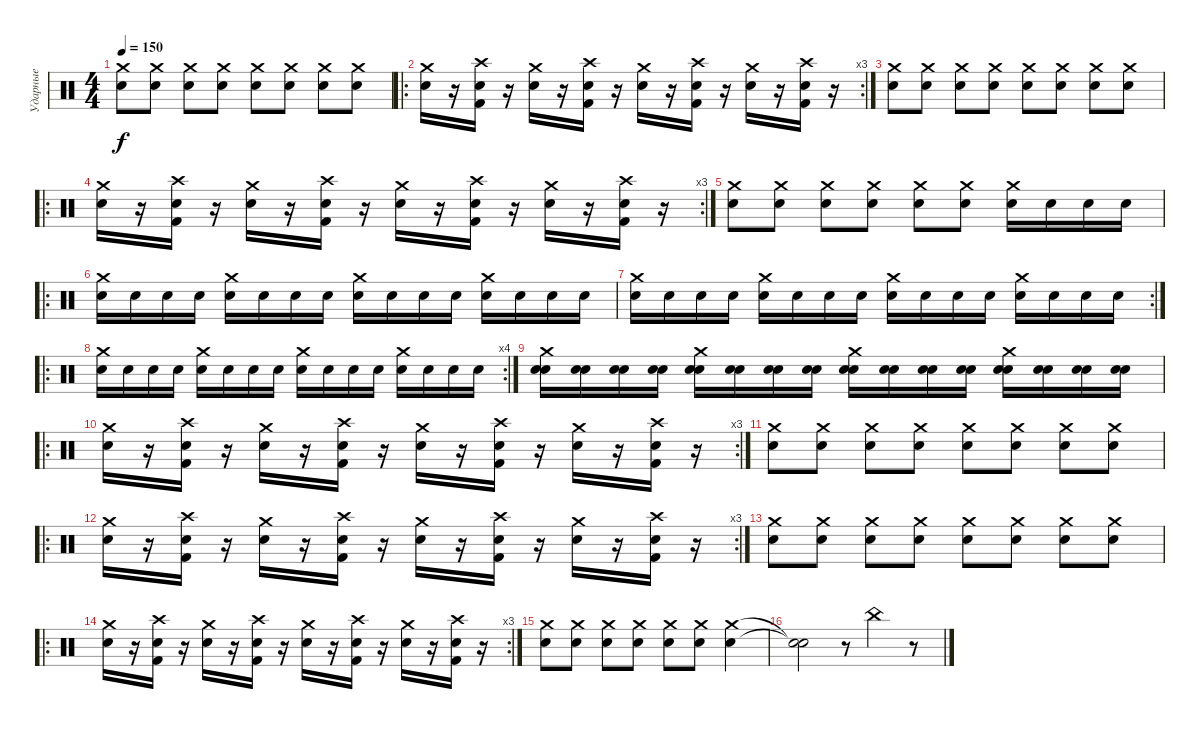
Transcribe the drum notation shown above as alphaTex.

\track ("Ударные" "Ударные") {instrument percussion}
\staff {score}
\articulation defaults
\ts (4 4)
\tempo 150
\clef neutral
\ks c
("Crash medium (hit)" "Snare (hit) 2").8{dy f} ("Crash medium (hit)" "Snare (hit) 2").8 ("Crash medium (hit)" "Snare (hit) 2").8 ("Crash medium (hit)" "Snare (hit) 2").8 ("Crash medium (hit)" "Snare (hit) 2").8 ("Crash medium (hit)" "Snare (hit) 2").8 ("Crash medium (hit)" "Snare (hit) 2").8 ("Crash medium (hit)" "Snare (hit) 2").8 |
\ro
\rc 3
("Crash medium (hit)" "Snare (hit) 2").16 r.16 ("Crash high (hit)" "Electric Snare (hit)" "Kick (hit) 2").16 r.16 ("Crash medium (hit)" "Snare (hit) 2").16 r.16 ("Crash high (hit)" "Electric Snare (hit)" "Kick (hit) 2").16 r.16 ("Crash medium (hit)" "Snare (hit) 2").16 r.16 ("Crash high (hit)" "Electric Snare (hit)" "Kick (hit) 2").16 r.16 ("Crash medium (hit)" "Snare (hit) 2").16 r.16 ("Crash high (hit)" "Electric Snare (hit)" "Kick (hit) 2").16 r.16 |
("Crash medium (hit)" "Snare (hit) 2").8 ("Crash medium (hit)" "Snare (hit) 2").8 ("Crash medium (hit)" "Snare (hit) 2").8 ("Crash medium (hit)" "Snare (hit) 2").8 ("Crash medium (hit)" "Snare (hit) 2").8 ("Crash medium (hit)" "Snare (hit) 2").8 ("Crash medium (hit)" "Snare (hit) 2").8 ("Crash medium (hit)" "Snare (hit) 2").8 |
\ro
\rc 3
("Crash medium (hit)" "Snare (hit) 2").16 r.16 ("Crash high (hit)" "Electric Snare (hit)" "Kick (hit) 2").16 r.16 ("Crash medium (hit)" "Snare (hit) 2").16 r.16 ("Crash high (hit)" "Electric Snare (hit)" "Kick (hit) 2").16 r.16 ("Crash medium (hit)" "Snare (hit) 2").16 r.16 ("Crash high (hit)" "Electric Snare (hit)" "Kick (hit) 2").16 r.16 ("Crash medium (hit)" "Snare (hit) 2").16 r.16 ("Crash high (hit)" "Electric Snare (hit)" "Kick (hit) 2").16 r.16 |
("Crash medium (hit)" "Snare (hit) 2").8 ("Crash medium (hit)" "Snare (hit) 2").8 ("Crash medium (hit)" "Snare (hit) 2").8 ("Crash medium (hit)" "Snare (hit) 2").8 ("Crash medium (hit)" "Snare (hit) 2").8 ("Crash medium (hit)" "Snare (hit) 2").8 ("Crash medium (hit)" "Snare (hit) 2").16 "Snare (hit) 2".16 "Snare (hit) 2".16 "Snare (hit) 2".16 |
\ro
("Crash medium (hit)" "Snare (hit) 2").16 "Snare (hit) 2".16 "Snare (hit) 2".16 "Snare (hit) 2".16 ("Crash medium (hit)" "Snare (hit) 2").16 "Snare (hit) 2".16 "Snare (hit) 2".16 "Snare (hit) 2".16 ("Crash medium (hit)" "Snare (hit) 2").16 "Snare (hit) 2".16 "Snare (hit) 2".16 "Snare (hit) 2".16 ("Crash medium (hit)" "Snare (hit) 2").16 "Snare (hit) 2".16 "Snare (hit) 2".16 "Snare (hit) 2".16 |
\rc 2
("Crash medium (hit)" "Snare (hit) 2").16 "Snare (hit) 2".16 "Snare (hit) 2".16 "Snare (hit) 2".16 ("Crash medium (hit)" "Snare (hit) 2").16 "Snare (hit) 2".16 "Snare (hit) 2".16 "Snare (hit) 2".16 ("Crash medium (hit)" "Snare (hit) 2").16 "Snare (hit) 2".16 "Snare (hit) 2".16 "Snare (hit) 2".16 ("Crash medium (hit)" "Snare (hit) 2").16 "Snare (hit) 2".16 "Snare (hit) 2".16 "Snare (hit) 2".16 |
\ro
\rc 4
("Crash medium (hit)" "Snare (hit) 2").16 "Snare (hit) 2".16 "Snare (hit) 2".16 "Snare (hit) 2".16 ("Crash medium (hit)" "Snare (hit) 2").16 "Snare (hit) 2".16 "Snare (hit) 2".16 "Snare (hit) 2".16 ("Crash medium (hit)" "Snare (hit) 2").16 "Snare (hit) 2".16 "Snare (hit) 2".16 "Snare (hit) 2".16 ("Crash medium (hit)" "Snare (hit) 2").16 "Snare (hit) 2".16 "Snare (hit) 2".16 "Snare (hit) 2".16 |
("Crash medium (hit)" "Electric Snare (hit)" "Snare (hit) 2").16 ("Electric Snare (hit)" "Snare (hit) 2").16 ("Electric Snare (hit)" "Snare (hit) 2").16 ("Electric Snare (hit)" "Snare (hit) 2").16 ("Crash medium (hit)" "Electric Snare (hit)" "Snare (hit) 2").16 ("Electric Snare (hit)" "Snare (hit) 2").16 ("Electric Snare (hit)" "Snare (hit) 2").16 ("Electric Snare (hit)" "Snare (hit) 2").16 ("Crash medium (hit)" "Electric Snare (hit)" "Snare (hit) 2").16 ("Electric Snare (hit)" "Snare (hit) 2").16 ("Electric Snare (hit)" "Snare (hit) 2").16 ("Electric Snare (hit)" "Snare (hit) 2").16 ("Crash medium (hit)" "Electric Snare (hit)" "Snare (hit) 2").16 ("Electric Snare (hit)" "Snare (hit) 2").16 ("Electric Snare (hit)" "Snare (hit) 2").16 ("Electric Snare (hit)" "Snare (hit) 2").16 |
\ro
\rc 3
("Crash medium (hit)" "Snare (hit) 2").16 r.16 ("Crash high (hit)" "Electric Snare (hit)" "Kick (hit) 2").16 r.16 ("Crash medium (hit)" "Snare (hit) 2").16 r.16 ("Crash high (hit)" "Electric Snare (hit)" "Kick (hit) 2").16 r.16 ("Crash medium (hit)" "Snare (hit) 2").16 r.16 ("Crash high (hit)" "Electric Snare (hit)" "Kick (hit) 2").16 r.16 ("Crash medium (hit)" "Snare (hit) 2").16 r.16 ("Crash high (hit)" "Electric Snare (hit)" "Kick (hit) 2").16 r.16 |
("Crash medium (hit)" "Snare (hit) 2").8 ("Crash medium (hit)" "Snare (hit) 2").8 ("Crash medium (hit)" "Snare (hit) 2").8 ("Crash medium (hit)" "Snare (hit) 2").8 ("Crash medium (hit)" "Snare (hit) 2").8 ("Crash medium (hit)" "Snare (hit) 2").8 ("Crash medium (hit)" "Snare (hit) 2").8 ("Crash medium (hit)" "Snare (hit) 2").8 |
\ro
\rc 3
("Crash medium (hit)" "Snare (hit) 2").16 r.16 ("Crash high (hit)" "Electric Snare (hit)" "Kick (hit) 2").16 r.16 ("Crash medium (hit)" "Snare (hit) 2").16 r.16 ("Crash high (hit)" "Electric Snare (hit)" "Kick (hit) 2").16 r.16 ("Crash medium (hit)" "Snare (hit) 2").16 r.16 ("Crash high (hit)" "Electric Snare (hit)" "Kick (hit) 2").16 r.16 ("Crash medium (hit)" "Snare (hit) 2").16 r.16 ("Crash high (hit)" "Electric Snare (hit)" "Kick (hit) 2").16 r.16 |
("Crash medium (hit)" "Snare (hit) 2").8 ("Crash medium (hit)" "Snare (hit) 2").8 ("Crash medium (hit)" "Snare (hit) 2").8 ("Crash medium (hit)" "Snare (hit) 2").8 ("Crash medium (hit)" "Snare (hit) 2").8 ("Crash medium (hit)" "Snare (hit) 2").8 ("Crash medium (hit)" "Snare (hit) 2").8 ("Crash medium (hit)" "Snare (hit) 2").8 |
\ro
\rc 3
("Crash medium (hit)" "Snare (hit) 2").16 r.16 ("Crash high (hit)" "Electric Snare (hit)" "Kick (hit) 2").16 r.16 ("Crash medium (hit)" "Snare (hit) 2").16 r.16 ("Crash high (hit)" "Electric Snare (hit)" "Kick (hit) 2").16 r.16 ("Crash medium (hit)" "Snare (hit) 2").16 r.16 ("Crash high (hit)" "Electric Snare (hit)" "Kick (hit) 2").16 r.16 ("Crash medium (hit)" "Snare (hit) 2").16 r.16 ("Crash high (hit)" "Electric Snare (hit)" "Kick (hit) 2").16 r.16 |
("Crash medium (hit)" "Snare (hit) 2").8 ("Crash medium (hit)" "Snare (hit) 2").8 ("Crash medium (hit)" "Snare (hit) 2").8 ("Crash medium (hit)" "Snare (hit) 2").8 ("Crash medium (hit)" "Snare (hit) 2").8 ("Crash medium (hit)" "Snare (hit) 2").8 ("Crash medium (hit)" "Snare (hit) 2").4 |
("Snare (hit)"{t} "Snare (hit)"{t}).2 r.8 "China (hit)".4 r.8
